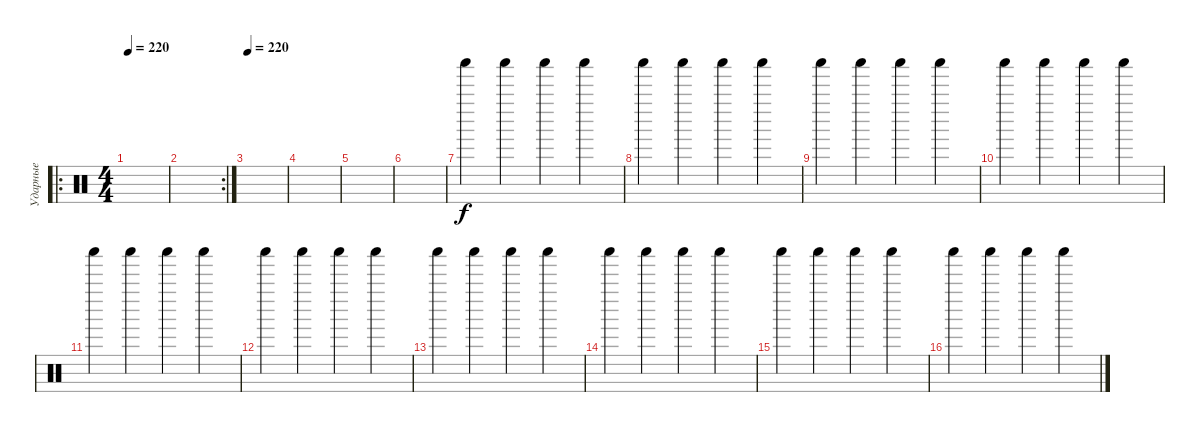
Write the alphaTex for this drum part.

\track ("Ударные" "Ударные") {instrument percussion}
\staff {score}
\articulation defaults
\ro
\ts (4 4)
\tempo 220
\clef neutral
\ks c
|
\rc 2
|
\tempo 220
|
|
|
|
"Shaker (hit)".4 "Shaker (hit)".4 "Shaker (hit)".4 "Shaker (hit)".4 |
"Shaker (hit)".4 "Shaker (hit)".4 "Shaker (hit)".4 "Shaker (hit)".4 |
"Shaker (hit)".4 "Shaker (hit)".4 "Shaker (hit)".4 "Shaker (hit)".4 |
"Shaker (hit)".4 "Shaker (hit)".4 "Shaker (hit)".4 "Shaker (hit)".4 |
"Shaker (hit)".4 "Shaker (hit)".4 "Shaker (hit)".4 "Shaker (hit)".4 |
"Shaker (hit)".4 "Shaker (hit)".4 "Shaker (hit)".4 "Shaker (hit)".4 |
"Shaker (hit)".4 "Shaker (hit)".4 "Shaker (hit)".4 "Shaker (hit)".4 |
"Shaker (hit)".4 "Shaker (hit)".4 "Shaker (hit)".4 "Shaker (hit)".4 |
"Shaker (hit)".4 "Shaker (hit)".4 "Shaker (hit)".4 "Shaker (hit)".4 |
"Shaker (hit)".4 "Shaker (hit)".4 "Shaker (hit)".4 "Shaker (hit)".4
